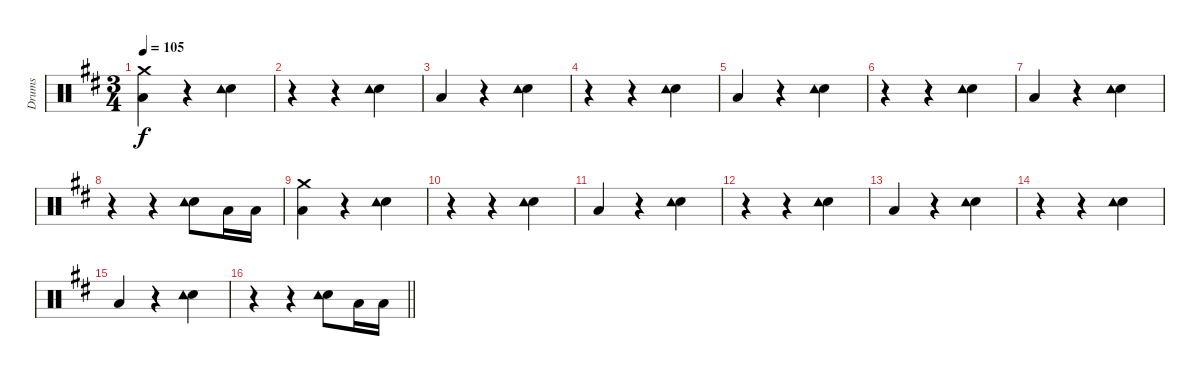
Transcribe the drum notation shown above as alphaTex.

\track ("Drums" "Drums") {instrument percussion}
\staff {score}
\articulation defaults
\ts (3 4)
\tempo 105
\clef neutral
\ks d
("Crash medium (hit)" "Low Floor Tom (hit)").4{dy f} r.4 ("Snare (hit) 2" "Tambourine (hit)").4 |
r.4 r.4 ("Snare (hit) 2" "Tambourine (hit)").4 |
"Low Floor Tom (hit)".4 r.4 ("Snare (hit) 2" "Tambourine (hit)").4 |
r.4 r.4 ("Snare (hit) 2" "Tambourine (hit)").4 |
"Low Floor Tom (hit)".4 r.4 ("Snare (hit) 2" "Tambourine (hit)").4 |
r.4 r.4 ("Snare (hit) 2" "Tambourine (hit)").4 |
"Low Floor Tom (hit)".4 r.4 ("Snare (hit) 2" "Tambourine (hit)").4 |
r.4 r.4 ("Snare (hit) 2" "Tambourine (hit)").8 "Low Floor Tom (hit)".16 "Low Floor Tom (hit)".16 |
("Crash medium (hit)" "Low Floor Tom (hit)").4 r.4 ("Snare (hit) 2" "Tambourine (hit)").4 |
r.4 r.4 ("Snare (hit) 2" "Tambourine (hit)").4 |
"Low Floor Tom (hit)".4 r.4 ("Snare (hit) 2" "Tambourine (hit)").4 |
r.4 r.4 ("Snare (hit) 2" "Tambourine (hit)").4 |
"Low Floor Tom (hit)".4 r.4 ("Snare (hit) 2" "Tambourine (hit)").4 |
r.4 r.4 ("Snare (hit) 2" "Tambourine (hit)").4 |
"Low Floor Tom (hit)".4 r.4 ("Snare (hit) 2" "Tambourine (hit)").4 |
\barLineRight lightlight
r.4 r.4 ("Snare (hit) 2" "Tambourine (hit)").8 "Low Floor Tom (hit)".16 "Low Floor Tom (hit)".16
